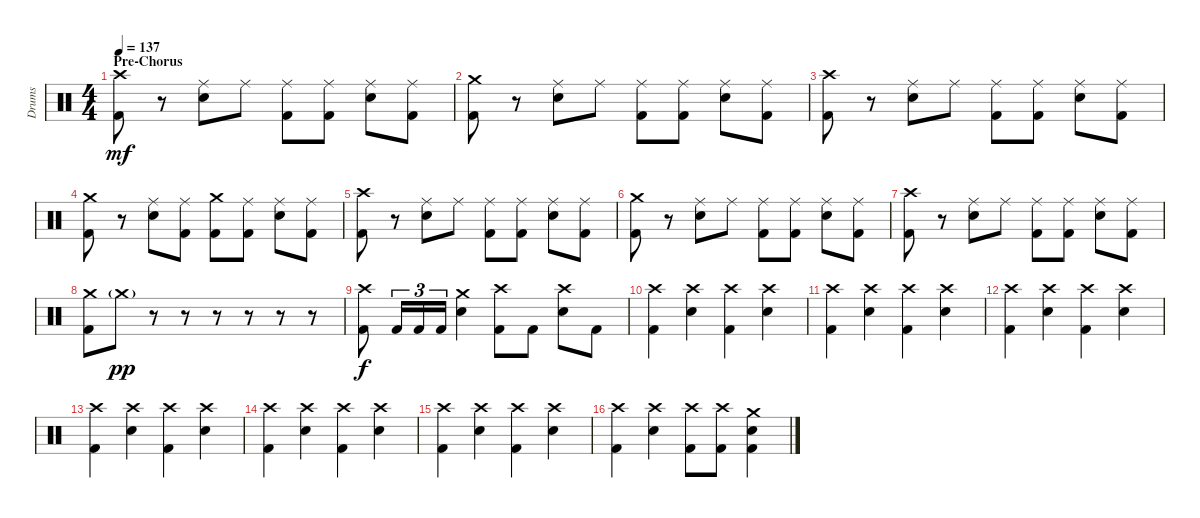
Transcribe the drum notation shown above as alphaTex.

\track ("Drums" "Drums") {instrument percussion}
\staff {score}
\articulation defaults
\ts (4 4)
\section ("" "Pre-Chorus")
\tempo 137
\clef neutral
\ks c
("Crash high (hit)" "Kick (hit) 2").8{dy mf} r.8 ("Ride (middle)" "Electric Snare (hit)").8 "Ride (middle)".8 ("Ride (middle)" "Kick (hit) 2").8 ("Ride (middle)" "Kick (hit) 2").8 ("Ride (middle)" "Electric Snare (hit)").8 ("Ride (middle)" "Kick (hit) 2").8 |
("Crash medium (hit)" "Kick (hit) 2").8 r.8 ("Ride (middle)" "Electric Snare (hit)").8 "Ride (middle)".8 ("Ride (middle)" "Kick (hit) 2").8 ("Ride (middle)" "Kick (hit) 2").8 ("Ride (middle)" "Electric Snare (hit)").8 ("Ride (middle)" "Kick (hit) 2").8 |
("Crash high (hit)" "Kick (hit) 2").8 r.8 ("Ride (middle)" "Electric Snare (hit)").8 "Ride (middle)".8 ("Ride (middle)" "Kick (hit) 2").8 ("Ride (middle)" "Kick (hit) 2").8 ("Ride (middle)" "Electric Snare (hit)").8 ("Ride (middle)" "Kick (hit) 2").8 |
("Crash medium (hit)" "Kick (hit) 2").8 r.8 ("Ride (middle)" "Electric Snare (hit)").8 ("Ride (middle)" "Kick (hit) 2").8 ("Crash medium (hit)" "Kick (hit) 2").8 ("Ride (middle)" "Kick (hit) 2").8 ("Ride (middle)" "Electric Snare (hit)").8 ("Ride (middle)" "Kick (hit) 2").8 |
("Crash high (hit)" "Kick (hit) 2").8 r.8 ("Ride (middle)" "Electric Snare (hit)").8 "Ride (middle)".8 ("Ride (middle)" "Kick (hit) 2").8 ("Ride (middle)" "Kick (hit) 2").8 ("Ride (middle)" "Electric Snare (hit)").8 ("Ride (middle)" "Kick (hit) 2").8 |
("Crash medium (hit)" "Kick (hit) 2").8 r.8 ("Ride (middle)" "Electric Snare (hit)").8 "Ride (middle)".8 ("Ride (middle)" "Kick (hit) 2").8 ("Ride (middle)" "Kick (hit) 2").8 ("Ride (middle)" "Electric Snare (hit)").8 ("Ride (middle)" "Kick (hit) 2").8 |
("Crash high (hit)" "Kick (hit) 2").8 r.8 ("Ride (middle)" "Electric Snare (hit)").8 "Ride (middle)".8 ("Ride (middle)" "Kick (hit) 2").8 ("Ride (middle)" "Kick (hit) 2").8 ("Ride (middle)" "Electric Snare (hit)").8 ("Ride (middle)" "Kick (hit) 2").8 |
("Crash medium (hit)" "Kick (hit) 2").8 "Crash medium (hit)"{g}.8{dy pp} r.8 r.8 r.8 r.8 r.8 r.8 |
("Crash high (hit)" "Kick (hit) 2").8{dy f} "Kick (hit) 2".16{tu (3 2)} "Kick (hit) 2".16{tu (3 2)} "Kick (hit) 2".16{tu (3 2)} ("Crash medium (hit)" "Electric Snare (hit)").4 ("Crash high (hit)" "Kick (hit) 2").8 "Kick (hit) 2".8 ("Crash high (hit)" "Electric Snare (hit)").8 "Kick (hit) 2".8 |
("Crash high (hit)" "Kick (hit) 2").4 ("Crash high (hit)" "Electric Snare (hit)").4 ("Crash high (hit)" "Kick (hit) 2").4 ("Crash high (hit)" "Electric Snare (hit)").4 |
("Crash high (hit)" "Kick (hit) 2").4 ("Crash high (hit)" "Electric Snare (hit)").4 ("Crash high (hit)" "Kick (hit) 2").4 ("Crash high (hit)" "Electric Snare (hit)").4 |
("Crash high (hit)" "Kick (hit) 2").4 ("Crash high (hit)" "Electric Snare (hit)").4 ("Crash high (hit)" "Kick (hit) 2").4 ("Crash high (hit)" "Electric Snare (hit)").4 |
("Crash high (hit)" "Kick (hit) 2").4 ("Crash high (hit)" "Electric Snare (hit)").4 ("Crash high (hit)" "Kick (hit) 2").4 ("Crash high (hit)" "Electric Snare (hit)").4 |
("Crash high (hit)" "Kick (hit) 2").4 ("Crash high (hit)" "Electric Snare (hit)").4 ("Crash high (hit)" "Kick (hit) 2").4 ("Crash high (hit)" "Electric Snare (hit)").4 |
("Crash high (hit)" "Kick (hit) 2").4 ("Crash high (hit)" "Electric Snare (hit)").4 ("Crash high (hit)" "Kick (hit) 2").4 ("Crash high (hit)" "Electric Snare (hit)").4 |
("Crash high (hit)" "Kick (hit) 2").4 ("Crash high (hit)" "Electric Snare (hit)").4 ("Crash high (hit)" "Kick (hit) 2").8 ("Crash high (hit)" "Kick (hit) 2").8 ("Crash medium (hit)" "Kick (hit) 2" "Electric Snare (hit)").4
